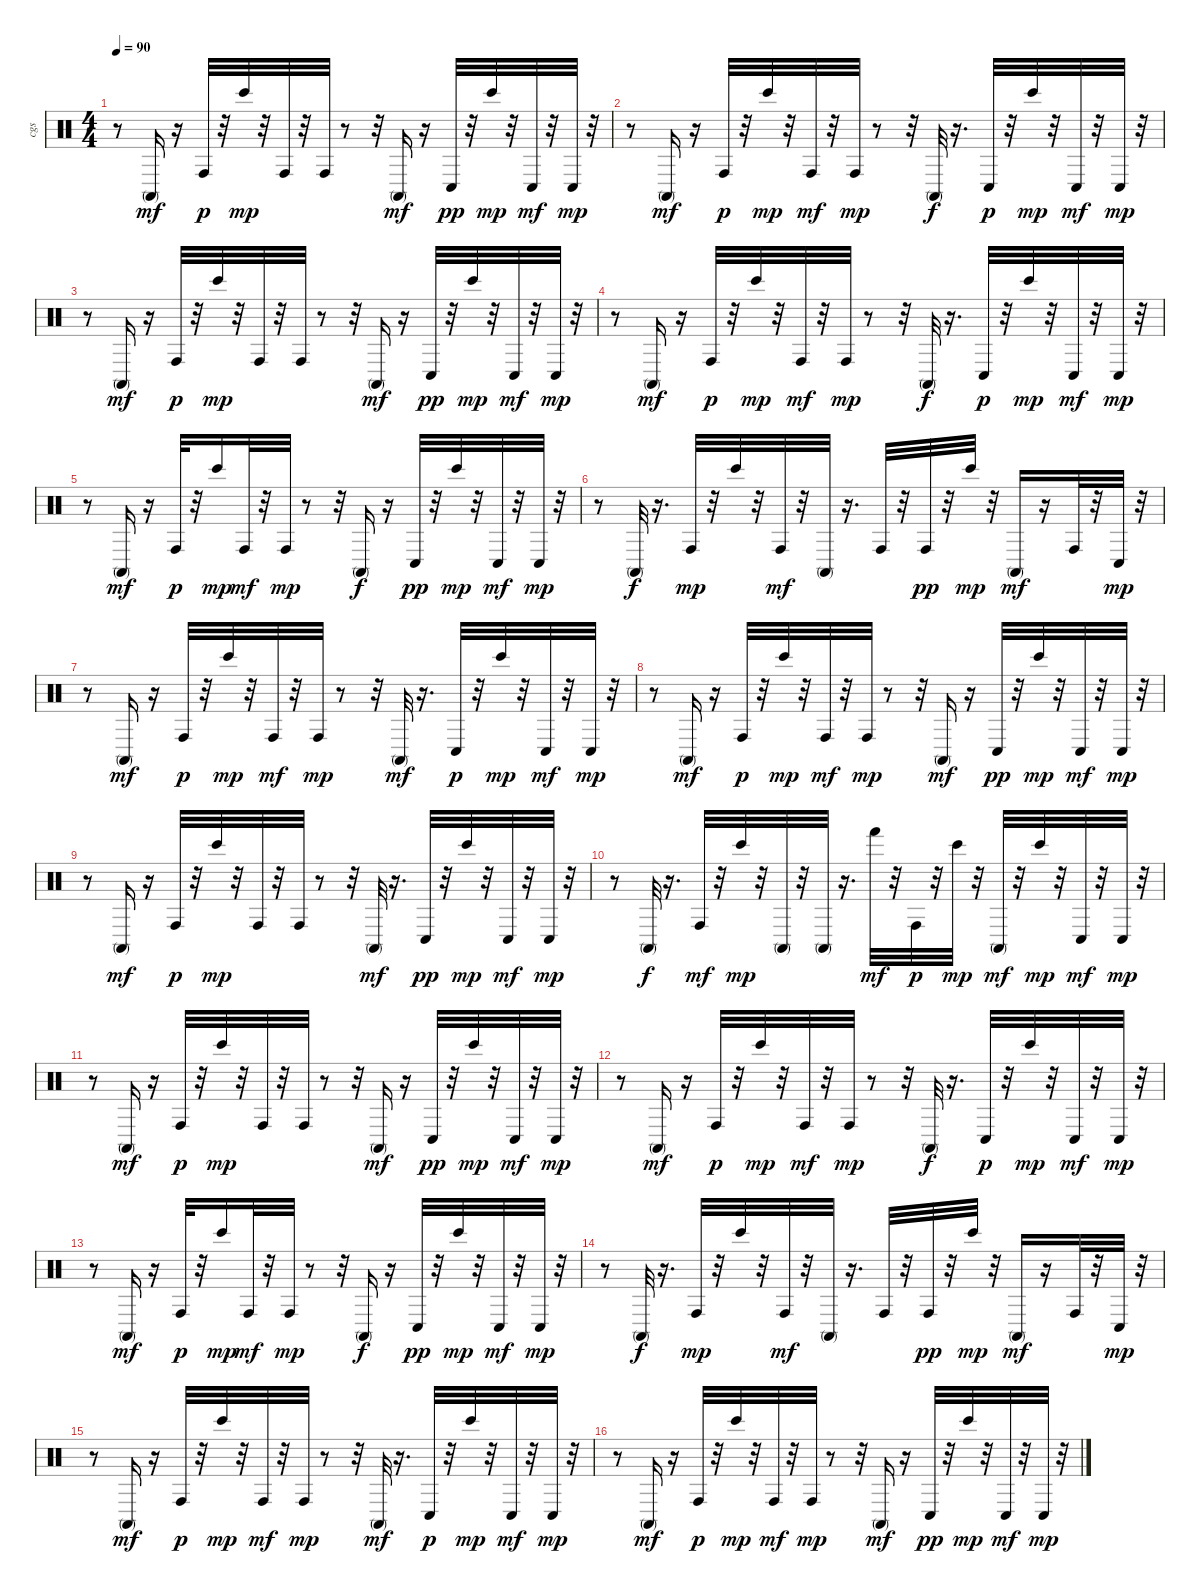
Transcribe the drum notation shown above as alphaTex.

\track ("cgs" "cgs") {instrument percussion}
\staff {score}
\articulation defaults
\ts (4 4)
\tempo 90
\clef neutral
\ks c
r.8{dy mp} "Conga high (mute)".16{dy mf} r.16 "Conga high (hit)".32{dy p} r.32 "Bongo High (hit)".32{dy mp} r.32 "Conga high (hit)".32 r.32 "Conga high (hit)".32 r.8 r.32 "Conga high (mute)".16{dy mf} r.16 "Conga low (hit)".32{dy pp} r.32 "Bongo High (hit)".32{dy mp} r.32 "Conga low (hit)".32{dy mf} r.32 "Conga low (hit)".32{dy mp} r.32 |
r.8 "Conga high (mute)".16{dy mf} r.16 "Conga high (hit)".32{dy p} r.32 "Bongo High (hit)".32{dy mp} r.32 "Conga high (hit)".32{dy mf} r.32 "Conga high (hit)".32{dy mp} r.8 r.32 "Conga high (mute)".32{dy f} r.16{d} "Conga low (hit)".32{dy p} r.32 "Bongo High (hit)".32{dy mp} r.32 "Conga low (hit)".32{dy mf} r.32 "Conga low (hit)".32{dy mp} r.32 |
r.8 "Conga high (mute)".16{dy mf} r.16 "Conga high (hit)".32{dy p} r.32 "Bongo High (hit)".32{dy mp} r.32 "Conga high (hit)".32 r.32 "Conga high (hit)".32 r.8 r.32 "Conga high (mute)".16{dy mf} r.16 "Conga low (hit)".32{dy pp} r.32 "Bongo High (hit)".32{dy mp} r.32 "Conga low (hit)".32{dy mf} r.32 "Conga low (hit)".32{dy mp} r.32 |
r.8 "Conga high (mute)".16{dy mf} r.16 "Conga high (hit)".32{dy p} r.32 "Bongo High (hit)".32{dy mp} r.32 "Conga high (hit)".32{dy mf} r.32 "Conga high (hit)".32{dy mp} r.8 r.32 "Conga high (mute)".32{dy f} r.16{d} "Conga low (hit)".32{dy p} r.32 "Bongo High (hit)".32{dy mp} r.32 "Conga low (hit)".32{dy mf} r.32 "Conga low (hit)".32{dy mp} r.32 |
r.8 "Conga high (mute)".16{dy mf} r.16 "Conga high (hit)".32{dy p} r.32 "Bongo High (hit)".16{dy mp} "Conga high (hit)".32{dy mf} r.32 "Conga high (hit)".32{dy mp} r.8 r.32 "Conga high (mute)".16{dy f} r.16 "Conga low (hit)".32{dy pp} r.32 "Bongo High (hit)".32{dy mp} r.32 "Conga low (hit)".32{dy mf} r.32 "Conga low (hit)".32{dy mp} r.32 |
r.8 "Conga high (mute)".32{dy f} r.16{d} "Conga high (hit)".32{dy mp} r.32 "Bongo High (hit)".32 r.32 "Conga high (hit)".32{dy mf} r.32 "Conga high (mute)".32 r.16{d} "Conga high (hit)".32 r.32 "Conga high (hit)".32{dy pp} r.32 "Bongo High (hit)".32{dy mp} r.32 "Conga high (mute)".16{dy mf} r.16 "Conga high (hit)".32 r.32 "Conga low (hit)".32{dy mp} r.32 |
r.8 "Conga high (mute)".16{dy mf} r.16 "Conga high (hit)".32{dy p} r.32 "Bongo High (hit)".32{dy mp} r.32 "Conga high (hit)".32{dy mf} r.32 "Conga high (hit)".32{dy mp} r.8 r.32 "Conga high (mute)".32{dy mf} r.16{d} "Conga low (hit)".32{dy p} r.32 "Bongo High (hit)".32{dy mp} r.32 "Conga low (hit)".32{dy mf} r.32 "Conga low (hit)".32{dy mp} r.32 |
r.8 "Conga high (mute)".16{dy mf} r.16 "Conga high (hit)".32{dy p} r.32 "Bongo High (hit)".32{dy mp} r.32 "Conga high (hit)".32{dy mf} r.32 "Conga high (hit)".32{dy mp} r.8 r.32 "Conga high (mute)".16{dy mf} r.16 "Conga low (hit)".32{dy pp} r.32 "Bongo High (hit)".32{dy mp} r.32 "Conga low (hit)".32{dy mf} r.32 "Conga low (hit)".32{dy mp} r.32 |
r.8 "Conga high (mute)".16{dy mf} r.16 "Conga high (hit)".32{dy p} r.32 "Bongo High (hit)".32{dy mp} r.32 "Conga high (hit)".32 r.32 "Conga high (hit)".32 r.8 r.32 "Conga high (mute)".32{dy mf} r.16{d} "Conga low (hit)".32{dy pp} r.32 "Bongo High (hit)".32{dy mp} r.32 "Conga low (hit)".32{dy mf} r.32 "Conga low (hit)".32{dy mp} r.32 |
r.8 "Conga high (mute)".32{dy f} r.16{d} "Conga high (hit)".32{dy mf} r.32 "Bongo High (hit)".32{dy mp} r.32 "Conga high (mute)".32 r.32 "Conga high (mute)".32 r.16{d} "Hand (hit)".32{dy mf} r.32 "Conga high (hit)".32{dy p} r.32 "Bongo High (hit)".32{dy mp} r.32 "Conga high (mute)".32{dy mf} r.32 "Bongo High (hit)".32{dy mp} r.32 "Conga low (hit)".32{dy mf} r.32 "Conga low (hit)".32{dy mp} r.32 |
r.8 "Conga high (mute)".16{dy mf} r.16 "Conga high (hit)".32{dy p} r.32 "Bongo High (hit)".32{dy mp} r.32 "Conga high (hit)".32 r.32 "Conga high (hit)".32 r.8 r.32 "Conga high (mute)".16{dy mf} r.16 "Conga low (hit)".32{dy pp} r.32 "Bongo High (hit)".32{dy mp} r.32 "Conga low (hit)".32{dy mf} r.32 "Conga low (hit)".32{dy mp} r.32 |
r.8 "Conga high (mute)".16{dy mf} r.16 "Conga high (hit)".32{dy p} r.32 "Bongo High (hit)".32{dy mp} r.32 "Conga high (hit)".32{dy mf} r.32 "Conga high (hit)".32{dy mp} r.8 r.32 "Conga high (mute)".32{dy f} r.16{d} "Conga low (hit)".32{dy p} r.32 "Bongo High (hit)".32{dy mp} r.32 "Conga low (hit)".32{dy mf} r.32 "Conga low (hit)".32{dy mp} r.32 |
r.8 "Conga high (mute)".16{dy mf} r.16 "Conga high (hit)".32{dy p} r.32 "Bongo High (hit)".16{dy mp} "Conga high (hit)".32{dy mf} r.32 "Conga high (hit)".32{dy mp} r.8 r.32 "Conga high (mute)".16{dy f} r.16 "Conga low (hit)".32{dy pp} r.32 "Bongo High (hit)".32{dy mp} r.32 "Conga low (hit)".32{dy mf} r.32 "Conga low (hit)".32{dy mp} r.32 |
r.8 "Conga high (mute)".32{dy f} r.16{d} "Conga high (hit)".32{dy mp} r.32 "Bongo High (hit)".32 r.32 "Conga high (hit)".32{dy mf} r.32 "Conga high (mute)".32 r.16{d} "Conga high (hit)".32 r.32 "Conga high (hit)".32{dy pp} r.32 "Bongo High (hit)".32{dy mp} r.32 "Conga high (mute)".16{dy mf} r.16 "Conga high (hit)".32 r.32 "Conga low (hit)".32{dy mp} r.32 |
r.8 "Conga high (mute)".16{dy mf} r.16 "Conga high (hit)".32{dy p} r.32 "Bongo High (hit)".32{dy mp} r.32 "Conga high (hit)".32{dy mf} r.32 "Conga high (hit)".32{dy mp} r.8 r.32 "Conga high (mute)".32{dy mf} r.16{d} "Conga low (hit)".32{dy p} r.32 "Bongo High (hit)".32{dy mp} r.32 "Conga low (hit)".32{dy mf} r.32 "Conga low (hit)".32{dy mp} r.32 |
r.8 "Conga high (mute)".16{dy mf} r.16 "Conga high (hit)".32{dy p} r.32 "Bongo High (hit)".32{dy mp} r.32 "Conga high (hit)".32{dy mf} r.32 "Conga high (hit)".32{dy mp} r.8 r.32 "Conga high (mute)".16{dy mf} r.16 "Conga low (hit)".32{dy pp} r.32 "Bongo High (hit)".32{dy mp} r.32 "Conga low (hit)".32{dy mf} r.32 "Conga low (hit)".32{dy mp} r.32
